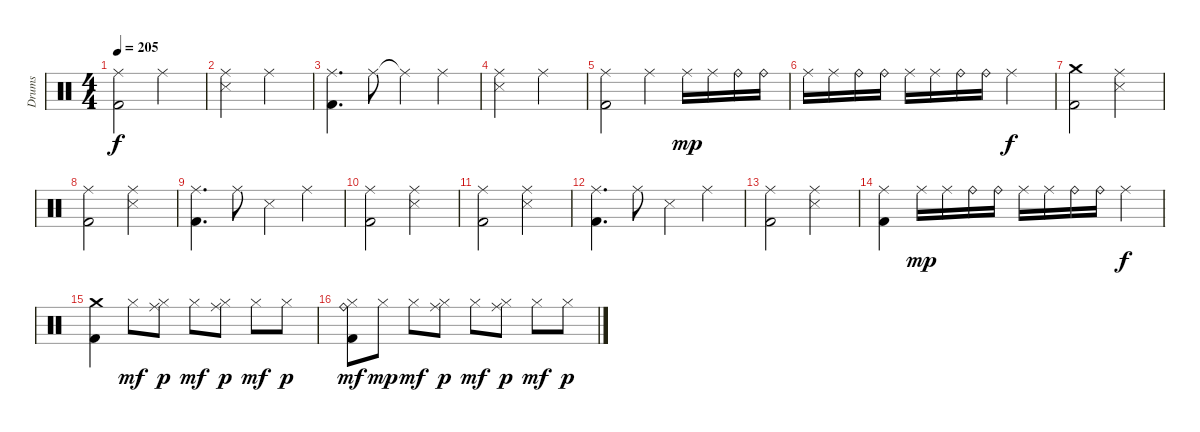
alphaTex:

\track ("Drums" "Drums") {instrument percussion}
\staff {score}
\articulation defaults
\ts (4 4)
\tempo 205
\clef neutral
\ks aminor
("Kick (hit) 2" "Ride (middle)").2{dy f} "Ride (middle)".2 |
("Ride (middle)" "Snare (side stick) 3").2 "Ride (middle)".2 |
("Ride (middle)" "Kick (hit) 2").4{d} "Ride (middle)".8 "Ride (middle)"{t}.4 "Ride (middle)".4 |
("Ride (middle)" "Snare (side stick) 3").2 "Ride (middle)".2 |
("Ride (middle)" "Kick (hit) 2").2 "Ride (middle)".4 "Ride (middle)".16{dy mp} "Ride (middle)".16 "Ride (bell)".16 "Ride (bell)".16 |
"Ride (middle)".16 "Ride (middle)".16 "Ride (bell)".16 "Ride (bell)".16 "Ride (middle)".16 "Ride (middle)".16 "Ride (bell)".16 "Ride (bell)".16 "Ride (middle)".2{dy f} |
("Crash medium (hit)" "Kick (hit) 2").2 ("Ride (middle)" "Snare (side stick) 3").2 |
("Kick (hit) 2" "Ride (middle)").2 ("Ride (middle)" "Snare (side stick) 3").2 |
("Kick (hit) 2" "Ride (middle)").4{d} "Ride (middle)".8 "Snare (side stick) 3".4 "Ride (middle)".4 |
("Kick (hit) 2" "Ride (middle)").2 ("Ride (middle)" "Snare (side stick) 3").2 |
("Kick (hit) 2" "Ride (middle)").2 ("Ride (middle)" "Snare (side stick) 3").2 |
("Kick (hit) 2" "Ride (middle)").4{d} "Ride (middle)".8 "Snare (side stick) 3".4 "Ride (middle)".4 |
("Kick (hit) 2" "Ride (middle)").2 ("Ride (middle)" "Snare (side stick) 3").2 |
("Ride (middle)" "Kick (hit) 2").4 "Ride (middle)".16{dy mp} "Ride (middle)".16 "Ride (bell)".16 "Ride (bell)".16 "Ride (middle)".16 "Ride (middle)".16 "Ride (bell)".16 "Ride (bell)".16 "Ride (middle)".4{dy f} |
("Crash medium (hit)" "Kick (hit) 2").4 "Hi-Hat (closed)".8{dy mf} ("Hi-Hat (closed)" "Ride (middle)").8{dy p} "Hi-Hat (closed)".8{dy mf} ("Hi-Hat (closed)" "Ride (middle)").8{dy p} "Hi-Hat (closed)".8{dy mf} "Hi-Hat (closed)".8{dy p} |
("Ride (bell)" "Hi-Hat (closed)" "Kick (hit) 2").8{dy mf} "Hi-Hat (closed)".8{dy mp} "Hi-Hat (closed)".8{dy mf} ("Hi-Hat (closed)" "Ride (middle)").8{dy p} "Hi-Hat (closed)".8{dy mf} ("Hi-Hat (closed)" "Ride (middle)").8{dy p} "Hi-Hat (closed)".8{dy mf} "Hi-Hat (closed)".8{dy p}
